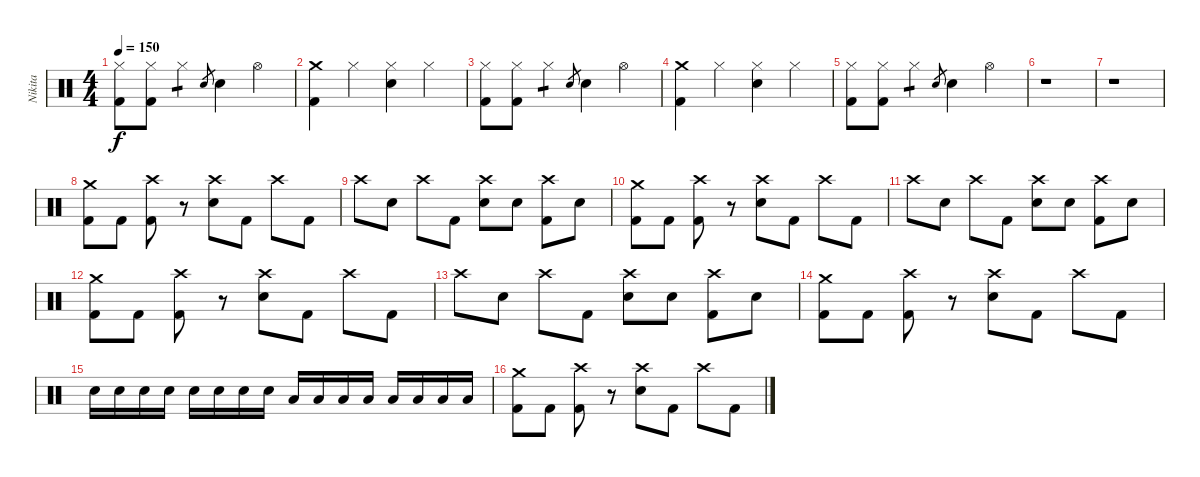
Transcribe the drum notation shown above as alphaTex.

\track ("Nikita" "Nikita") {instrument percussion}
\staff {score}
\articulation defaults
\ts (4 4)
\tempo 150
\clef neutral
\ks c
("Hi-Hat (closed)" "Kick (hit) 2").8{dy f} ("Hi-Hat (closed)" "Kick (hit) 2").8 "Hi-Hat (closed)".4{tp 1} "Electric Snare (hit)".8{gr} "Electric Snare (hit)".4 "Hi-Hat (open)".4 |
("Crash medium (hit)" "Kick (hit) 2").4 "Hi-Hat (closed)".4 ("Hi-Hat (closed)" "Electric Snare (hit)").4 "Hi-Hat (closed)".4 |
("Hi-Hat (closed)" "Kick (hit) 2").8 ("Hi-Hat (closed)" "Kick (hit) 2").8 "Hi-Hat (closed)".4{tp 1} "Electric Snare (hit)".8{gr} "Electric Snare (hit)".4 "Hi-Hat (open)".4 |
("Crash medium (hit)" "Kick (hit) 2").4 "Hi-Hat (closed)".4 ("Hi-Hat (closed)" "Electric Snare (hit)").4 "Hi-Hat (closed)".4 |
("Hi-Hat (closed)" "Kick (hit) 2").8 ("Hi-Hat (closed)" "Kick (hit) 2").8 "Hi-Hat (closed)".4{tp 1} "Electric Snare (hit)".8{gr} "Electric Snare (hit)".4 "Hi-Hat (open)".4 |
r.1 |
r.1 |
("Crash medium (hit)" "Kick (hit) 2").8 "Kick (hit) 2".8 ("Crash high (hit)" "Kick (hit) 2").8 r.8 ("Crash high (hit)" "Electric Snare (hit)").8 "Kick (hit) 2".8 "Crash high (hit)".8 "Kick (hit) 2".8 |
"Crash high (hit)".8 "Electric Snare (hit)".8 "Crash high (hit)".8 "Kick (hit) 2".8 ("Crash high (hit)" "Electric Snare (hit)").8 "Electric Snare (hit)".8 ("Crash high (hit)" "Kick (hit) 2").8 "Electric Snare (hit)".8 |
("Crash medium (hit)" "Kick (hit) 2").8 "Kick (hit) 2".8 ("Crash high (hit)" "Kick (hit) 2").8 r.8 ("Crash high (hit)" "Electric Snare (hit)").8 "Kick (hit) 2".8 "Crash high (hit)".8 "Kick (hit) 2".8 |
"Crash high (hit)".8 "Electric Snare (hit)".8 "Crash high (hit)".8 "Kick (hit) 2".8 ("Crash high (hit)" "Electric Snare (hit)").8 "Electric Snare (hit)".8 ("Crash high (hit)" "Kick (hit) 2").8 "Electric Snare (hit)".8 |
("Crash medium (hit)" "Kick (hit) 2").8 "Kick (hit) 2".8 ("Crash high (hit)" "Kick (hit) 2").8 r.8 ("Crash high (hit)" "Electric Snare (hit)").8 "Kick (hit) 2".8 "Crash high (hit)".8 "Kick (hit) 2".8 |
"Crash high (hit)".8 "Electric Snare (hit)".8 "Crash high (hit)".8 "Kick (hit) 2".8 ("Crash high (hit)" "Electric Snare (hit)").8 "Electric Snare (hit)".8 ("Crash high (hit)" "Kick (hit) 2").8 "Electric Snare (hit)".8 |
("Crash medium (hit)" "Kick (hit) 2").8 "Kick (hit) 2".8 ("Crash high (hit)" "Kick (hit) 2").8 r.8 ("Crash high (hit)" "Electric Snare (hit)").8 "Kick (hit) 2".8 "Crash high (hit)".8 "Kick (hit) 2".8 |
"Electric Snare (hit)".16 "Electric Snare (hit)".16 "Electric Snare (hit)".16 "Electric Snare (hit)".16 "Electric Snare (hit)".16 "Electric Snare (hit)".16 "Electric Snare (hit)".16 "Electric Snare (hit)".16 "Low Tom (hit)".16 "Low Tom (hit)".16 "Low Tom (hit)".16 "Low Tom (hit)".16 "Low Floor Tom (hit)".16 "Low Floor Tom (hit)".16 "Low Floor Tom (hit)".16 "Low Floor Tom (hit)".16 |
("Crash medium (hit)" "Kick (hit) 2").8 "Kick (hit) 2".8 ("Crash high (hit)" "Kick (hit) 2").8 r.8 ("Crash high (hit)" "Electric Snare (hit)").8 "Kick (hit) 2".8 "Crash high (hit)".8 "Kick (hit) 2".8
